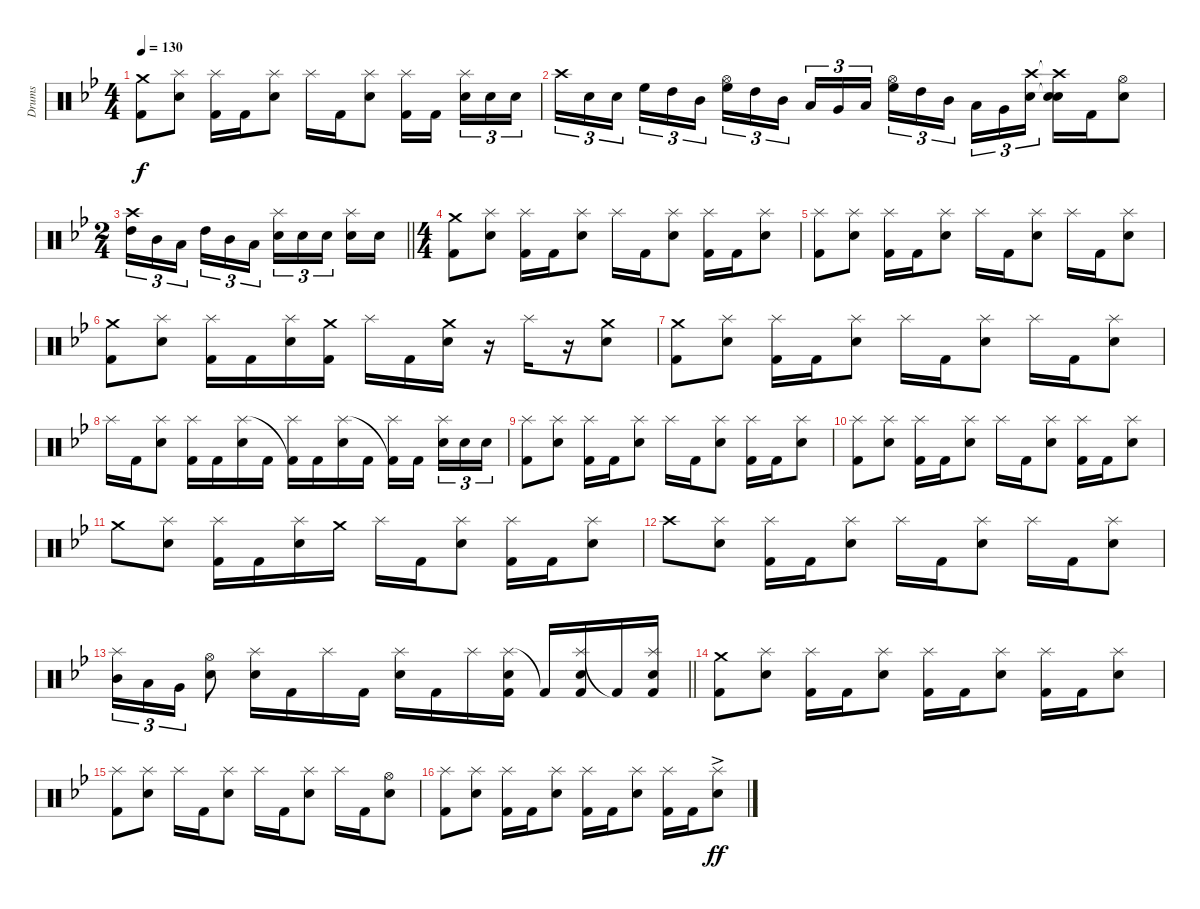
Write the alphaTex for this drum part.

\track ("Drums" "Drums") {instrument percussion}
\staff {score}
\articulation defaults
\ts (4 4)
\tempo 130
\clef neutral
\ks bb
("Crash medium (hit)" "Kick (hit) 2").8{dy f} ("Splash (hit)" "Electric Snare (hit)").8 ("Splash (hit)" "Kick (hit) 2").16 "Kick (hit) 2".16 ("Electric Snare (hit)" "Splash (hit)").8 "Splash (hit)".16 "Kick (hit) 2".16 ("Electric Snare (hit)" "Splash (hit)").8 ("Splash (hit)" "Kick (hit) 2").16 "Kick (hit) 2".16{beam splitsecondary} ("Electric Snare (hit)" "Splash (hit)").16{tu (3 2)} "Electric Snare (hit)".16{tu (3 2)} "Electric Snare (hit)".16{tu (3 2)} |
"Crash high (hit)".16{tu (3 2)} "Electric Snare (hit)".16{tu (3 2)} "Electric Snare (hit)".16{tu (3 2) beam splitsecondary} "High Floor Tom (hit)".16{tu (3 2)} "High Tom (hit)".16{tu (3 2)} "Mid Tom (hit)".16{tu (3 2)} ("High Floor Tom (hit)" "Hi-Hat (open)").16{tu (3 2)} "High Tom (hit)".16{tu (3 2)} "Mid Tom (hit)".16{tu (3 2) beam splitsecondary} "Low Tom (hit)".16{tu (3 2)} "Very Low Tom (hit)".16{tu (3 2)} "Low Floor Tom (hit)".16{tu (3 2)} ("High Floor Tom (hit)" "Hi-Hat (open)").16{tu (3 2)} "High Tom (hit)".16{tu (3 2)} "Mid Tom (hit)".16{tu (3 2) beam splitsecondary} "Low Tom (hit)".16{tu (3 2)} "Very Low Tom (hit)".16{tu (3 2)} ("Electric Snare (hit)" "Crash high (hit)").16{tu (3 2)} ("Electric Snare (hit)"{t} "Crash high (hit)"{t} "Snare (hit)").16 "Kick (hit) 2".16 ("Electric Snare (hit)" "Hi-Hat (open)").8 |
\ts (2 4)
\barLineRight lightlight
("High Tom (hit)" "Crash high (hit)").16{tu (3 2)} "Mid Tom (hit)".16{tu (3 2)} "Low Tom (hit)".16{tu (3 2) beam splitsecondary} "High Tom (hit)".16{tu (3 2)} "Mid Tom (hit)".16{tu (3 2)} "Low Tom (hit)".16{tu (3 2)} ("Electric Snare (hit)" "Splash (hit)").16{tu (3 2)} "Electric Snare (hit)".16{tu (3 2)} "Electric Snare (hit)".16{tu (3 2) volume 11 beam splitsecondary} ("Electric Snare (hit)" "Splash (hit)").16{volume 10} "Electric Snare (hit)".16{volume 9} |
\ts (4 4)
("Crash medium (hit)" "Kick (hit) 2").8{volume 12} ("Splash (hit)" "Electric Snare (hit)").8 ("Splash (hit)" "Kick (hit) 2").16 "Kick (hit) 2".16 ("Electric Snare (hit)" "Splash (hit)").8 "Splash (hit)".16 "Kick (hit) 2".16 ("Electric Snare (hit)" "Splash (hit)").8 ("Splash (hit)" "Kick (hit) 2").16 "Kick (hit) 2".16 ("Electric Snare (hit)" "Splash (hit)").8 |
("Splash (hit)" "Kick (hit) 2").8 ("Splash (hit)" "Electric Snare (hit)").8 ("Splash (hit)" "Kick (hit) 2").16 "Kick (hit) 2".16 ("Electric Snare (hit)" "Splash (hit)").8 "Splash (hit)".16 "Kick (hit) 2".16 ("Electric Snare (hit)" "Splash (hit)").8 "Splash (hit)".16 "Kick (hit) 2".16 ("Electric Snare (hit)" "Splash (hit)").8 |
("Crash medium (hit)" "Kick (hit) 2").8 ("Splash (hit)" "Electric Snare (hit)").8 ("Splash (hit)" "Kick (hit) 2").16 "Kick (hit) 2".16 ("Electric Snare (hit)" "Splash (hit)").16 ("Crash medium (hit)" "Kick (hit) 2").16 "Splash (hit)".16 "Kick (hit) 2".16 ("Crash medium (hit)" "Electric Snare (hit)").16 r.16 "Splash (hit)".16 r.16 ("Crash medium (hit)" "Electric Snare (hit)").8 |
("Crash medium (hit)" "Kick (hit) 2").8 ("Splash (hit)" "Electric Snare (hit)").8 ("Splash (hit)" "Kick (hit) 2").16 "Kick (hit) 2".16 ("Electric Snare (hit)" "Splash (hit)").8 "Splash (hit)".16 "Kick (hit) 2".16 ("Electric Snare (hit)" "Splash (hit)").8 "Splash (hit)".16 "Kick (hit) 2".16 ("Electric Snare (hit)" "Splash (hit)").8 |
"Splash (hit)".16 "Kick (hit) 2".16 ("Electric Snare (hit)" "Splash (hit)").8 ("Splash (hit)" "Kick (hit) 2").16 "Kick (hit) 2".16 ("Electric Snare (hit)" "Splash (hit)").16 "Kick (hit) 2".16 ("Splash (hit)" "Kick (hit) 2"{t}).16 "Kick (hit) 2".16 ("Electric Snare (hit)" "Splash (hit)").16 "Kick (hit) 2".16 ("Splash (hit)" "Kick (hit) 2"{t}).16 "Kick (hit) 2".16{beam splitsecondary} ("Electric Snare (hit)" "Splash (hit)").16{tu (3 2)} "Electric Snare (hit)".16{tu (3 2) volume 11} "Electric Snare (hit)".16{tu (3 2) volume 10} |
("Splash (hit)" "Kick (hit) 2").8{volume 12} ("Electric Snare (hit)" "Splash (hit)").8 ("Splash (hit)" "Kick (hit) 2").16 "Kick (hit) 2".16 ("Electric Snare (hit)" "Splash (hit)").8 "Splash (hit)".16 "Kick (hit) 2".16 ("Electric Snare (hit)" "Splash (hit)").8 ("Splash (hit)" "Kick (hit) 2").16 "Kick (hit) 2".16 ("Electric Snare (hit)" "Splash (hit)").8 |
("Splash (hit)" "Kick (hit) 2").8 ("Electric Snare (hit)" "Splash (hit)").8 ("Splash (hit)" "Kick (hit) 2").16 "Kick (hit) 2".16 ("Electric Snare (hit)" "Splash (hit)").8 "Splash (hit)".16 "Kick (hit) 2".16 ("Electric Snare (hit)" "Splash (hit)").8 ("Splash (hit)" "Kick (hit) 2").16 "Kick (hit) 2".16 ("Electric Snare (hit)" "Splash (hit)").8 |
"Crash medium (hit)".8 ("Electric Snare (hit)" "Splash (hit)").8 ("Splash (hit)" "Kick (hit) 2").16 "Kick (hit) 2".16 ("Electric Snare (hit)" "Splash (hit)").16 "Crash medium (hit)".16 "Splash (hit)".16 "Kick (hit) 2".16 ("Electric Snare (hit)" "Splash (hit)").8 ("Splash (hit)" "Kick (hit) 2").16 "Kick (hit) 2".16 ("Electric Snare (hit)" "Splash (hit)").8 |
"Crash high (hit)".8 ("Electric Snare (hit)" "Splash (hit)").8 ("Splash (hit)" "Kick (hit) 2").16 "Kick (hit) 2".16 ("Electric Snare (hit)" "Splash (hit)").8 "Splash (hit)".16 "Kick (hit) 2".16 ("Electric Snare (hit)" "Splash (hit)").8 "Splash (hit)".16 "Kick (hit) 2".16 ("Electric Snare (hit)" "Splash (hit)").8 |
\barLineRight lightlight
("Splash (hit)" "Mid Tom (hit)").16{tu (3 2)} "Low Tom (hit)".16{tu (3 2)} "Very Low Tom (hit)".16{tu (3 2)} ("Hi-Hat (open)" "Electric Snare (hit)").8 ("Splash (hit)" "Electric Snare (hit)").16 "Kick (hit) 2".16 "Splash (hit)".16 "Kick (hit) 2".16 ("Splash (hit)" "Electric Snare (hit)").16 "Kick (hit) 2".16 "Splash (hit)".16 ("Splash (hit)" "Kick (hit) 2" "Electric Snare (hit)").16 "Kick (hit) 2"{t}.16 ("Splash (hit)" "Kick (hit) 2" "Electric Snare (hit)").16 "Kick (hit) 2"{t}.16 ("Splash (hit)" "Kick (hit) 2" "Electric Snare (hit)").16 |
("Crash medium (hit)" "Kick (hit) 2").8 ("Electric Snare (hit)" "Splash (hit)").8 ("Splash (hit)" "Kick (hit) 2").16 "Kick (hit) 2".16 ("Electric Snare (hit)" "Splash (hit)").8 ("Splash (hit)" "Kick (hit) 2").16 "Kick (hit) 2".16 ("Electric Snare (hit)" "Splash (hit)").8 ("Splash (hit)" "Kick (hit) 2").16 "Kick (hit) 2".16 ("Electric Snare (hit)" "Splash (hit)").8 |
("Splash (hit)" "Kick (hit) 2").8 ("Electric Snare (hit)" "Splash (hit)").8 "Splash (hit)".16 "Kick (hit) 2".16 ("Electric Snare (hit)" "Splash (hit)").8 "Splash (hit)".16 "Kick (hit) 2".16 ("Electric Snare (hit)" "Splash (hit)").8 "Splash (hit)".16 "Kick (hit) 2".16 ("Electric Snare (hit)" "Hi-Hat (open)").8 |
("Splash (hit)" "Kick (hit) 2").8 ("Electric Snare (hit)" "Splash (hit)").8 ("Splash (hit)" "Kick (hit) 2").16 "Kick (hit) 2".16 ("Electric Snare (hit)" "Splash (hit)").8 ("Splash (hit)" "Kick (hit) 2").16 "Kick (hit) 2".16 ("Electric Snare (hit)" "Splash (hit)").8 ("Splash (hit)" "Kick (hit) 2").16 "Kick (hit) 2".16 ("Electric Snare (hit)"{ac} "Splash (hit)").8{dy ff}
